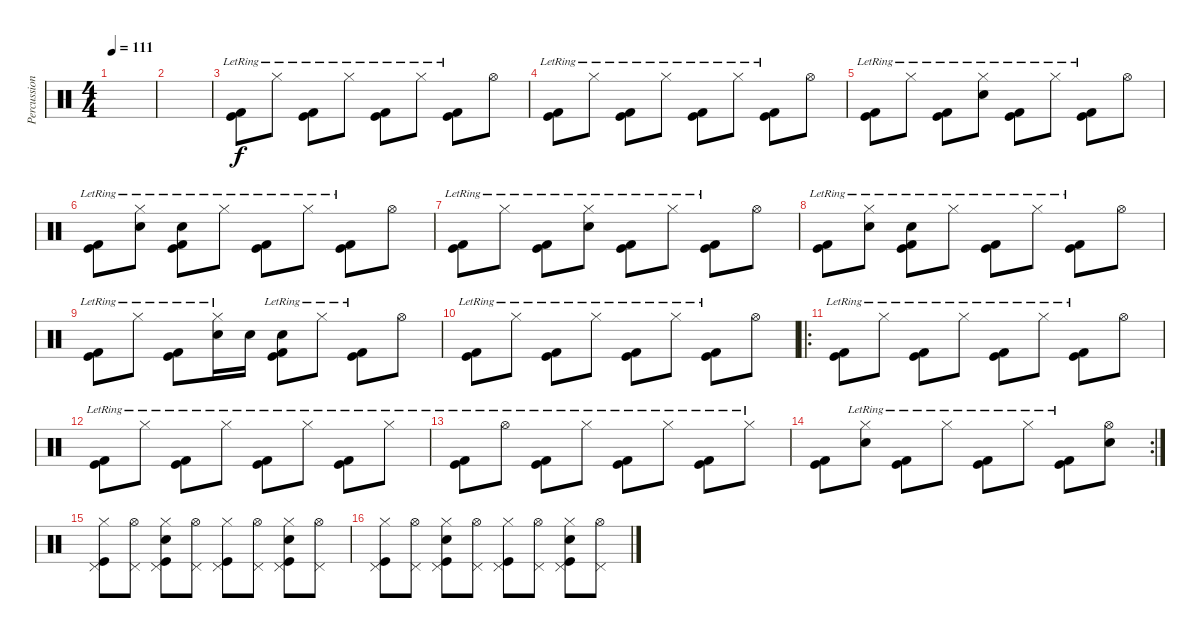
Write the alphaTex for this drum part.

\track ("Percussion" "Percussion") {instrument percussion}
\staff {score}
\articulation defaults
\ts (4 4)
\tempo 111
\clef neutral
\ks c
|
|
("Kick (hit)"{lr} "Kick (hit) 2").8 "Hi-Hat (closed)"{lr}.8 ("Kick (hit)"{lr} "Kick (hit) 2").8 "Hi-Hat (closed)"{lr}.8 ("Kick (hit)"{lr} "Kick (hit) 2").8 "Hi-Hat (closed)"{lr}.8 ("Kick (hit)"{lr} "Kick (hit) 2").8 "Hi-Hat (open)".8 |
("Kick (hit)"{lr} "Kick (hit) 2").8 "Hi-Hat (closed)"{lr}.8 ("Kick (hit)"{lr} "Kick (hit) 2").8 "Hi-Hat (closed)"{lr}.8 ("Kick (hit)"{lr} "Kick (hit) 2").8 "Hi-Hat (closed)"{lr}.8 ("Kick (hit)"{lr} "Kick (hit) 2").8 "Hi-Hat (open)".8 |
("Kick (hit)"{lr} "Kick (hit) 2").8 "Hi-Hat (closed)"{lr}.8 ("Kick (hit)"{lr} "Kick (hit) 2").8 ("Hi-Hat (closed)"{lr} "Snare (hit) 2"{lr}).8 ("Kick (hit)"{lr} "Kick (hit) 2").8 "Hi-Hat (closed)"{lr}.8 ("Kick (hit)"{lr} "Kick (hit) 2").8 "Hi-Hat (open)".8 |
("Kick (hit)"{lr} "Kick (hit) 2").8 ("Hi-Hat (closed)"{lr} "Snare (hit) 2").8 ("Kick (hit)"{lr} "Kick (hit) 2" "Snare (hit) 2").8 "Hi-Hat (closed)"{lr}.8 ("Kick (hit)"{lr} "Kick (hit) 2").8 "Hi-Hat (closed)"{lr}.8 ("Kick (hit)"{lr} "Kick (hit) 2").8 "Hi-Hat (open)".8 |
("Kick (hit)"{lr} "Kick (hit) 2").8 "Hi-Hat (closed)"{lr}.8 ("Kick (hit)"{lr} "Kick (hit) 2").8 ("Hi-Hat (closed)"{lr} "Snare (hit) 2").8 ("Kick (hit)"{lr} "Kick (hit) 2").8 "Hi-Hat (closed)"{lr}.8 ("Kick (hit)"{lr} "Kick (hit) 2").8 "Hi-Hat (open)".8 |
("Kick (hit)"{lr} "Kick (hit) 2").8 ("Hi-Hat (closed)"{lr} "Snare (hit) 2").8 ("Kick (hit)"{lr} "Kick (hit) 2" "Snare (hit) 2").8 "Hi-Hat (closed)"{lr}.8 ("Kick (hit)"{lr} "Kick (hit) 2").8 "Hi-Hat (closed)"{lr}.8 ("Kick (hit)"{lr} "Kick (hit) 2").8 "Hi-Hat (open)".8 |
("Kick (hit)"{lr} "Kick (hit) 2").8 "Hi-Hat (closed)"{lr}.8 ("Kick (hit)"{lr} "Kick (hit) 2").8 ("Hi-Hat (closed)"{lr} "Snare (hit) 2").16 "Snare (hit) 2".16 ("Kick (hit)"{lr} "Kick (hit) 2" "Snare (hit) 2").8 "Hi-Hat (closed)"{lr}.8 ("Kick (hit)"{lr} "Kick (hit) 2").8 "Hi-Hat (open)".8 |
("Kick (hit)"{lr} "Kick (hit) 2").8 "Hi-Hat (closed)"{lr}.8 ("Kick (hit)"{lr} "Kick (hit) 2").8 "Hi-Hat (closed)"{lr}.8 ("Kick (hit)"{lr} "Kick (hit) 2").8 "Hi-Hat (closed)"{lr}.8 ("Kick (hit)"{lr} "Kick (hit) 2").8 "Hi-Hat (open)".8 |
\ro
("Kick (hit)"{lr} "Kick (hit) 2").8 "Hi-Hat (closed)"{lr}.8 ("Kick (hit)"{lr} "Kick (hit) 2").8 "Hi-Hat (closed)"{lr}.8 ("Kick (hit)"{lr} "Kick (hit) 2").8 "Hi-Hat (closed)"{lr}.8 ("Kick (hit)"{lr} "Kick (hit) 2").8 "Hi-Hat (open)".8 |
("Kick (hit)"{lr} "Kick (hit) 2").8 "Hi-Hat (closed)"{lr}.8 ("Kick (hit)"{lr} "Kick (hit) 2").8 "Hi-Hat (closed)"{lr}.8 ("Kick (hit)"{lr} "Kick (hit) 2").8 "Hi-Hat (closed)"{lr}.8 ("Kick (hit)"{lr} "Kick (hit) 2").8 "Hi-Hat (closed)"{lr}.8 |
("Kick (hit)"{lr} "Kick (hit) 2").8 "Hi-Hat (open)"{lr}.8 ("Kick (hit)"{lr} "Kick (hit) 2").8 "Hi-Hat (closed)"{lr}.8 ("Kick (hit)"{lr} "Kick (hit) 2").8 "Hi-Hat (closed)"{lr}.8 ("Kick (hit)"{lr} "Kick (hit) 2").8 "Hi-Hat (closed)"{lr}.8 |
\rc 2
("Kick (hit)" "Kick (hit) 2").8 ("Hi-Hat (closed)"{lr} "Snare (hit) 2").8 ("Kick (hit)"{lr} "Kick (hit) 2").8 "Hi-Hat (closed)"{lr}.8 ("Kick (hit)"{lr} "Kick (hit) 2").8 "Hi-Hat (closed)"{lr}.8 ("Kick (hit)"{lr} "Kick (hit) 2").8 ("Hi-Hat (open)" "Snare (hit) 2").8 |
("Kick (hit)" "Hi-Hat (closed)" "Pedal Hi-Hat (hit)").8 ("Hi-Hat (open)" "Pedal Hi-Hat (hit)").8 ("Kick (hit)" "Snare (hit) 2" "Hi-Hat (closed)" "Pedal Hi-Hat (hit)").8 ("Hi-Hat (open)" "Pedal Hi-Hat (hit)").8 ("Kick (hit)" "Hi-Hat (closed)" "Pedal Hi-Hat (hit)").8 ("Hi-Hat (open)" "Pedal Hi-Hat (hit)").8 ("Kick (hit)" "Snare (hit) 2" "Hi-Hat (closed)" "Pedal Hi-Hat (hit)").8 ("Hi-Hat (open)" "Pedal Hi-Hat (hit)").8 |
("Kick (hit)" "Hi-Hat (closed)" "Pedal Hi-Hat (hit)").8 ("Hi-Hat (open)" "Pedal Hi-Hat (hit)").8 ("Kick (hit)" "Snare (hit) 2" "Hi-Hat (closed)" "Pedal Hi-Hat (hit)").8 ("Hi-Hat (open)" "Pedal Hi-Hat (hit)").8 ("Kick (hit)" "Hi-Hat (closed)" "Pedal Hi-Hat (hit)").8 ("Hi-Hat (open)" "Pedal Hi-Hat (hit)").8 ("Kick (hit)" "Snare (hit) 2" "Hi-Hat (closed)" "Pedal Hi-Hat (hit)").8 ("Hi-Hat (open)" "Pedal Hi-Hat (hit)").8
